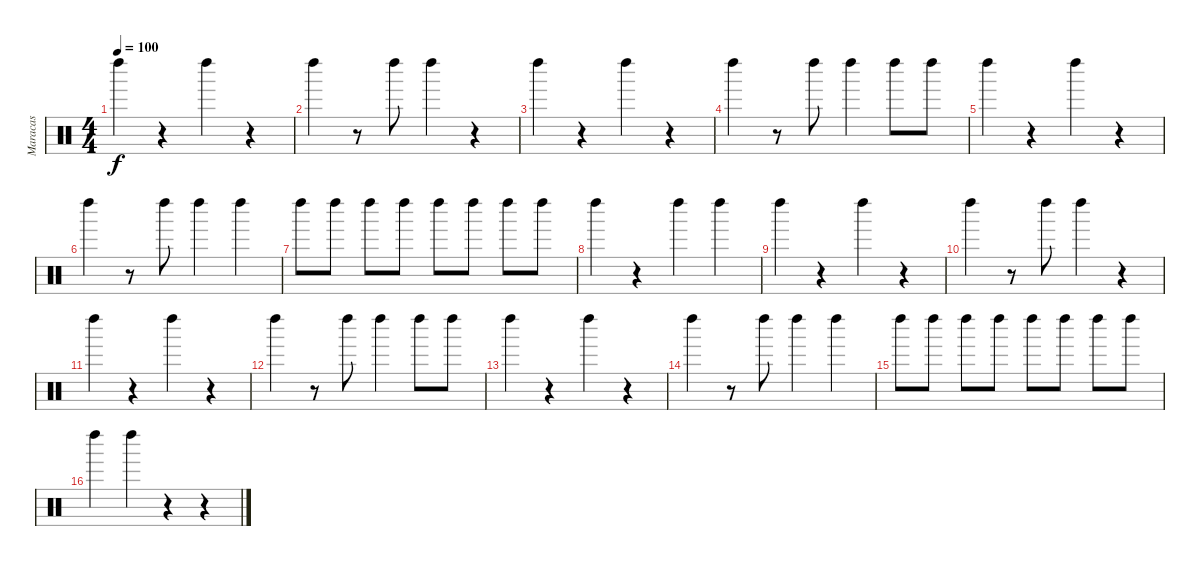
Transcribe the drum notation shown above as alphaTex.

\track ("Maracas" "Maracas") {instrument percussion}
\staff {score}
\articulation defaults
\ts (4 4)
\tempo 100
\clef neutral
\ks c "Left Maraca (hit)".4{dy f}
r.4 "Left Maraca (hit)".4 r.4 |
"Left Maraca (hit)".4 r.8 "Left Maraca (hit)".8 "Left Maraca (hit)".4 r.4 |
"Left Maraca (hit)".4 r.4 "Left Maraca (hit)".4 r.4 |
"Left Maraca (hit)".4 r.8 "Left Maraca (hit)".8 "Left Maraca (hit)".4 "Left Maraca (hit)".8 "Left Maraca (hit)".8 |
"Left Maraca (hit)".4 r.4 "Left Maraca (hit)".4 r.4 |
"Left Maraca (hit)".4 r.8 "Left Maraca (hit)".8 "Left Maraca (hit)".4 "Left Maraca (hit)".4 |
"Left Maraca (hit)".8 "Left Maraca (hit)".8 "Left Maraca (hit)".8 "Left Maraca (hit)".8 "Left Maraca (hit)".8 "Left Maraca (hit)".8 "Left Maraca (hit)".8 "Left Maraca (hit)".8 |
"Left Maraca (hit)".4 r.4 "Left Maraca (hit)".4 "Left Maraca (hit)".4 |
"Left Maraca (hit)".4 r.4 "Left Maraca (hit)".4 r.4 |
"Left Maraca (hit)".4 r.8 "Left Maraca (hit)".8 "Left Maraca (hit)".4 r.4 |
"Left Maraca (hit)".4 r.4 "Left Maraca (hit)".4 r.4 |
"Left Maraca (hit)".4 r.8 "Left Maraca (hit)".8 "Left Maraca (hit)".4 "Left Maraca (hit)".8 "Left Maraca (hit)".8 |
"Left Maraca (hit)".4 r.4 "Left Maraca (hit)".4 r.4 |
"Left Maraca (hit)".4 r.8 "Left Maraca (hit)".8 "Left Maraca (hit)".4 "Left Maraca (hit)".4 |
"Left Maraca (hit)".8 "Left Maraca (hit)".8 "Left Maraca (hit)".8 "Left Maraca (hit)".8 "Left Maraca (hit)".8 "Left Maraca (hit)".8 "Left Maraca (hit)".8 "Left Maraca (hit)".8 |
"Left Maraca (hit)".4 "Left Maraca (hit)".4 r.4 r.4
